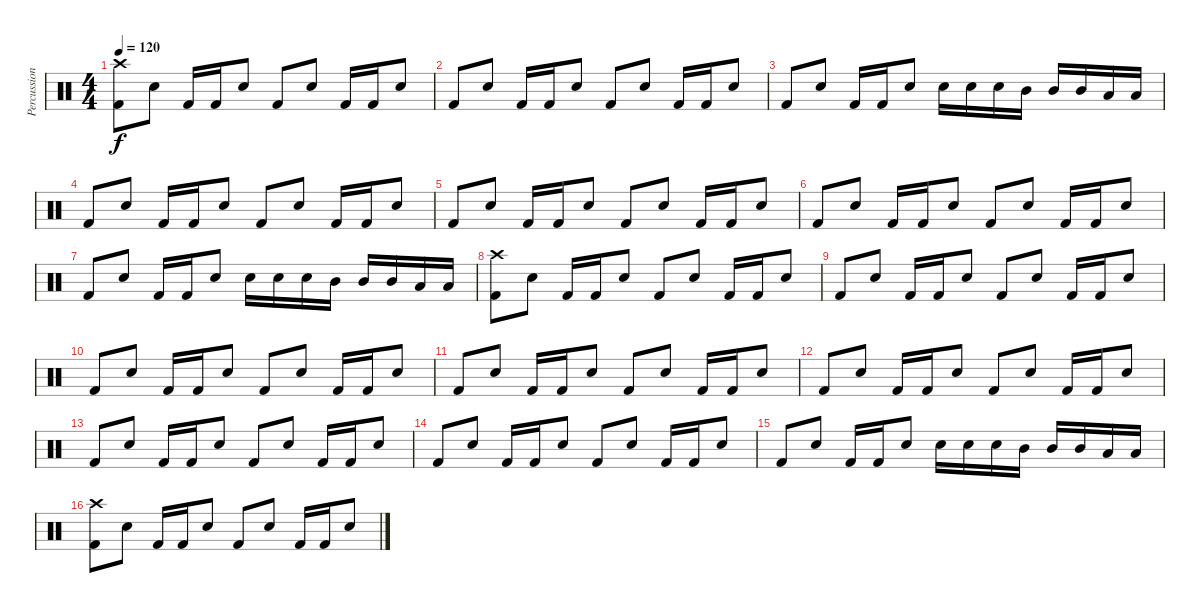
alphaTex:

\track ("Percussions" "Percussion") {instrument percussion}
\staff {score}
\articulation defaults
\ts (4 4)
\tempo 120
\clef neutral
\ks c
("Crash high (hit)" "Kick (hit) 2").8{dy f} "Snare (hit) 2".8 "Kick (hit) 2".16 "Kick (hit) 2".16 "Snare (hit) 2".8 "Kick (hit) 2".8 "Snare (hit) 2".8 "Kick (hit) 2".16 "Kick (hit) 2".16 "Snare (hit) 2".8 |
"Kick (hit) 2".8 "Snare (hit) 2".8 "Kick (hit) 2".16 "Kick (hit) 2".16 "Snare (hit) 2".8 "Kick (hit) 2".8 "Snare (hit) 2".8 "Kick (hit) 2".16 "Kick (hit) 2".16 "Snare (hit) 2".8 |
"Kick (hit) 2".8 "Snare (hit) 2".8 "Kick (hit) 2".16 "Kick (hit) 2".16 "Snare (hit) 2".8 "Snare (hit) 2".16 "Snare (hit) 2".16 "Snare (hit) 2".16 "Mid Tom (hit)".16 "Mid Tom (hit)".16 "Mid Tom (hit)".16 "Low Tom (hit)".16 "Low Tom (hit)".16 |
"Kick (hit) 2".8 "Snare (hit) 2".8 "Kick (hit) 2".16 "Kick (hit) 2".16 "Snare (hit) 2".8 "Kick (hit) 2".8 "Snare (hit) 2".8 "Kick (hit) 2".16 "Kick (hit) 2".16 "Snare (hit) 2".8 |
"Kick (hit) 2".8 "Snare (hit) 2".8 "Kick (hit) 2".16 "Kick (hit) 2".16 "Snare (hit) 2".8 "Kick (hit) 2".8 "Snare (hit) 2".8 "Kick (hit) 2".16 "Kick (hit) 2".16 "Snare (hit) 2".8 |
"Kick (hit) 2".8 "Snare (hit) 2".8 "Kick (hit) 2".16 "Kick (hit) 2".16 "Snare (hit) 2".8 "Kick (hit) 2".8 "Snare (hit) 2".8 "Kick (hit) 2".16 "Kick (hit) 2".16 "Snare (hit) 2".8 |
"Kick (hit) 2".8 "Snare (hit) 2".8 "Kick (hit) 2".16 "Kick (hit) 2".16 "Snare (hit) 2".8 "Snare (hit) 2".16 "Snare (hit) 2".16 "Snare (hit) 2".16 "Mid Tom (hit)".16 "Mid Tom (hit)".16 "Mid Tom (hit)".16 "Low Tom (hit)".16 "Low Tom (hit)".16 |
("Crash high (hit)" "Kick (hit) 2").8 "Snare (hit) 2".8 "Kick (hit) 2".16 "Kick (hit) 2".16 "Snare (hit) 2".8 "Kick (hit) 2".8 "Snare (hit) 2".8 "Kick (hit) 2".16 "Kick (hit) 2".16 "Snare (hit) 2".8 |
"Kick (hit) 2".8 "Snare (hit) 2".8 "Kick (hit) 2".16 "Kick (hit) 2".16 "Snare (hit) 2".8 "Kick (hit) 2".8 "Snare (hit) 2".8 "Kick (hit) 2".16 "Kick (hit) 2".16 "Snare (hit) 2".8 |
"Kick (hit) 2".8 "Snare (hit) 2".8 "Kick (hit) 2".16 "Kick (hit) 2".16 "Snare (hit) 2".8 "Kick (hit) 2".8 "Snare (hit) 2".8 "Kick (hit) 2".16 "Kick (hit) 2".16 "Snare (hit) 2".8 |
"Kick (hit) 2".8 "Snare (hit) 2".8 "Kick (hit) 2".16 "Kick (hit) 2".16 "Snare (hit) 2".8 "Kick (hit) 2".8 "Snare (hit) 2".8 "Kick (hit) 2".16 "Kick (hit) 2".16 "Snare (hit) 2".8 |
"Kick (hit) 2".8 "Snare (hit) 2".8 "Kick (hit) 2".16 "Kick (hit) 2".16 "Snare (hit) 2".8 "Kick (hit) 2".8 "Snare (hit) 2".8 "Kick (hit) 2".16 "Kick (hit) 2".16 "Snare (hit) 2".8 |
"Kick (hit) 2".8 "Snare (hit) 2".8 "Kick (hit) 2".16 "Kick (hit) 2".16 "Snare (hit) 2".8 "Kick (hit) 2".8 "Snare (hit) 2".8 "Kick (hit) 2".16 "Kick (hit) 2".16 "Snare (hit) 2".8 |
"Kick (hit) 2".8 "Snare (hit) 2".8 "Kick (hit) 2".16 "Kick (hit) 2".16 "Snare (hit) 2".8 "Kick (hit) 2".8 "Snare (hit) 2".8 "Kick (hit) 2".16 "Kick (hit) 2".16 "Snare (hit) 2".8 |
"Kick (hit) 2".8 "Snare (hit) 2".8 "Kick (hit) 2".16 "Kick (hit) 2".16 "Snare (hit) 2".8 "Snare (hit) 2".16 "Snare (hit) 2".16 "Snare (hit) 2".16 "Mid Tom (hit)".16 "Mid Tom (hit)".16 "Mid Tom (hit)".16 "Low Tom (hit)".16 "Low Tom (hit)".16 |
("Crash high (hit)" "Kick (hit) 2").8 "Snare (hit) 2".8 "Kick (hit) 2".16 "Kick (hit) 2".16 "Snare (hit) 2".8 "Kick (hit) 2".8 "Snare (hit) 2".8 "Kick (hit) 2".16 "Kick (hit) 2".16 "Snare (hit) 2".8
